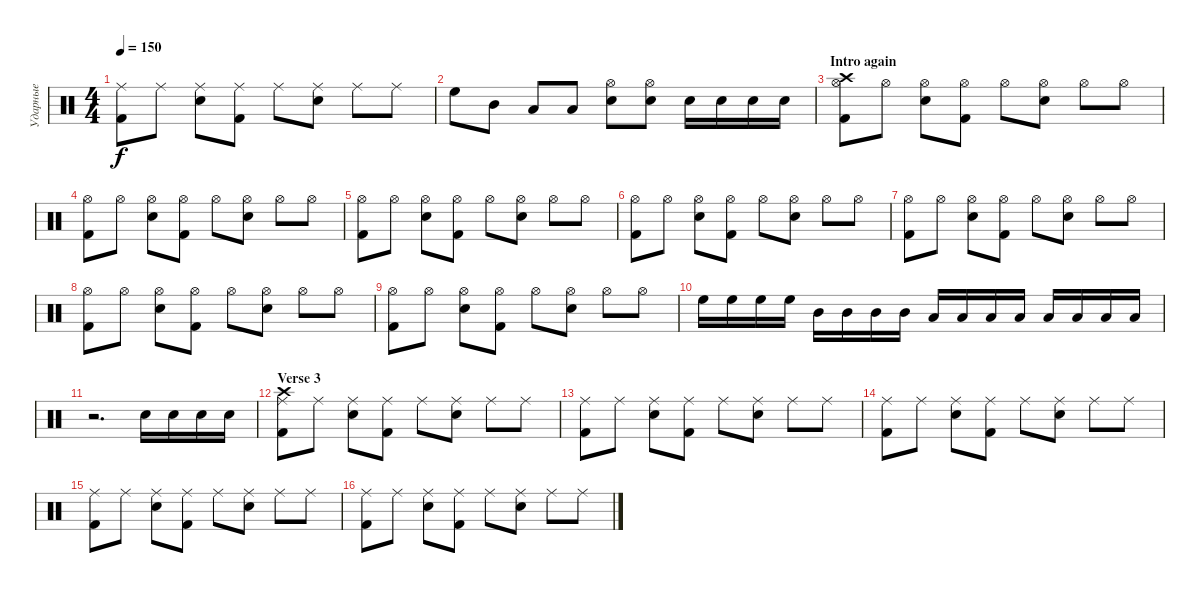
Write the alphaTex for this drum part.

\track ("Ударные" "Ударные") {instrument percussion}
\staff {score}
\articulation defaults
\ts (4 4)
\tempo 150
\clef neutral
\ks c
("Ride (middle)" "Kick (hit) 2").8{dy f} "Ride (middle)".8 ("Ride (middle)" "Snare (hit) 2").8 ("Ride (middle)" "Kick (hit) 2").8 "Ride (middle)".8 ("Ride (middle)" "Snare (hit) 2").8 "Ride (middle)".8 "Ride (middle)".8 |
"High Floor Tom (hit)".8 "Mid Tom (hit)".8 "Low Tom (hit)".8 "Low Floor Tom (hit)".8 ("Hi-Hat (open)" "Snare (hit) 2").8 ("Hi-Hat (open)" "Snare (hit) 2").8 "Snare (hit) 2".16 "Snare (hit) 2".16 "Snare (hit) 2".16 "Snare (hit) 2".16 |
\section ("" "Intro again")
("Hi-Hat (open)" "Crash high (hit)" "Kick (hit) 2").8 "Hi-Hat (open)".8 ("Hi-Hat (open)" "Snare (hit) 2").8 ("Hi-Hat (open)" "Kick (hit) 2").8 "Hi-Hat (open)".8 ("Hi-Hat (open)" "Snare (hit) 2").8 "Hi-Hat (open)".8 "Hi-Hat (open)".8 |
("Hi-Hat (open)" "Kick (hit) 2").8 "Hi-Hat (open)".8 ("Hi-Hat (open)" "Snare (hit) 2").8 ("Hi-Hat (open)" "Kick (hit) 2").8 "Hi-Hat (open)".8 ("Hi-Hat (open)" "Snare (hit) 2").8 "Hi-Hat (open)".8 "Hi-Hat (open)".8 |
("Hi-Hat (open)" "Kick (hit) 2").8 "Hi-Hat (open)".8 ("Hi-Hat (open)" "Snare (hit) 2").8 ("Hi-Hat (open)" "Kick (hit) 2").8 "Hi-Hat (open)".8 ("Hi-Hat (open)" "Snare (hit) 2").8 "Hi-Hat (open)".8 "Hi-Hat (open)".8 |
("Hi-Hat (open)" "Kick (hit) 2").8 "Hi-Hat (open)".8 ("Hi-Hat (open)" "Snare (hit) 2").8 ("Hi-Hat (open)" "Kick (hit) 2").8 "Hi-Hat (open)".8 ("Hi-Hat (open)" "Snare (hit) 2").8 "Hi-Hat (open)".8 "Hi-Hat (open)".8 |
("Hi-Hat (open)" "Kick (hit) 2").8 "Hi-Hat (open)".8 ("Hi-Hat (open)" "Snare (hit) 2").8 ("Hi-Hat (open)" "Kick (hit) 2").8 "Hi-Hat (open)".8 ("Hi-Hat (open)" "Snare (hit) 2").8 "Hi-Hat (open)".8 "Hi-Hat (open)".8 |
("Hi-Hat (open)" "Kick (hit) 2").8 "Hi-Hat (open)".8 ("Hi-Hat (open)" "Snare (hit) 2").8 ("Hi-Hat (open)" "Kick (hit) 2").8 "Hi-Hat (open)".8 ("Hi-Hat (open)" "Snare (hit) 2").8 "Hi-Hat (open)".8 "Hi-Hat (open)".8 |
("Hi-Hat (open)" "Kick (hit) 2").8 "Hi-Hat (open)".8 ("Hi-Hat (open)" "Snare (hit) 2").8 ("Hi-Hat (open)" "Kick (hit) 2").8 "Hi-Hat (open)".8 ("Hi-Hat (open)" "Snare (hit) 2").8 "Hi-Hat (open)".8 "Hi-Hat (open)".8 |
"High Floor Tom (hit)".16 "High Floor Tom (hit)".16 "High Floor Tom (hit)".16 "High Floor Tom (hit)".16 "Mid Tom (hit)".16 "Mid Tom (hit)".16 "Mid Tom (hit)".16 "Mid Tom (hit)".16 "Low Tom (hit)".16 "Low Tom (hit)".16 "Low Tom (hit)".16 "Low Tom (hit)".16 "Low Floor Tom (hit)".16 "Low Floor Tom (hit)".16 "Low Floor Tom (hit)".16 "Low Floor Tom (hit)".16 |
r.2{d} "Snare (hit) 2".16 "Snare (hit) 2".16 "Snare (hit) 2".16 "Snare (hit) 2".16 |
\section ("" "Verse 3")
("Ride (middle)" "Crash high (hit)" "Kick (hit) 2").8 "Ride (middle)".8 ("Ride (middle)" "Snare (hit) 2").8 ("Ride (middle)" "Kick (hit) 2").8 "Ride (middle)".8 ("Ride (middle)" "Snare (hit) 2").8 "Ride (middle)".8 "Ride (middle)".8 |
("Ride (middle)" "Kick (hit) 2").8 "Ride (middle)".8 ("Ride (middle)" "Snare (hit) 2").8 ("Ride (middle)" "Kick (hit) 2").8 "Ride (middle)".8 ("Ride (middle)" "Snare (hit) 2").8 "Ride (middle)".8 "Ride (middle)".8 |
("Ride (middle)" "Kick (hit) 2").8 "Ride (middle)".8 ("Ride (middle)" "Snare (hit) 2").8 ("Ride (middle)" "Kick (hit) 2").8 "Ride (middle)".8 ("Ride (middle)" "Snare (hit) 2").8 "Ride (middle)".8 "Ride (middle)".8 |
("Ride (middle)" "Kick (hit) 2").8 "Ride (middle)".8 ("Ride (middle)" "Snare (hit) 2").8 ("Ride (middle)" "Kick (hit) 2").8 "Ride (middle)".8 ("Ride (middle)" "Snare (hit) 2").8 "Ride (middle)".8 "Ride (middle)".8 |
("Ride (middle)" "Kick (hit) 2").8 "Ride (middle)".8 ("Ride (middle)" "Snare (hit) 2").8 ("Ride (middle)" "Kick (hit) 2").8 "Ride (middle)".8 ("Ride (middle)" "Snare (hit) 2").8 "Ride (middle)".8 "Ride (middle)".8
